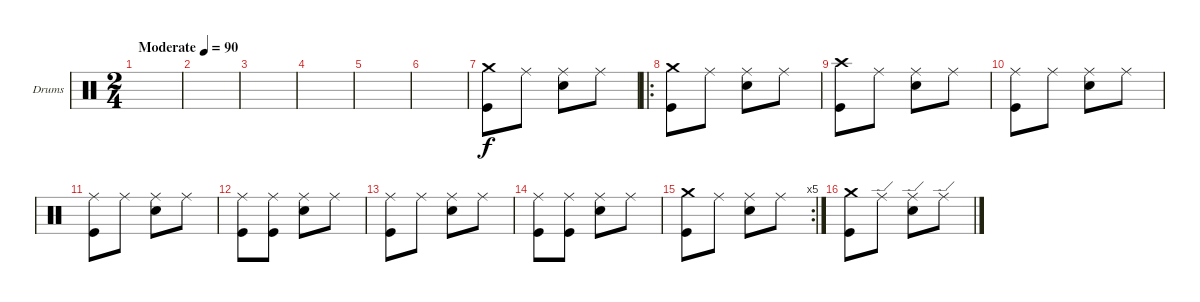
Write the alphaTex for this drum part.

\bracketExtendMode groupsimilarinstruments
\firstSystemTrackNameOrientation horizontal
\otherSystemsTrackNameOrientation horizontal
\track ("Drumkit" "Drums") {instrument percussion}
\staff {score}
\articulation defaults
\ts (2 4)
\beaming (8 2 2)
\tempo (90 "Moderate")
\clef neutral
\scale
0.472222
\ks c
|
\scale
0.263889 |
\scale
0.263889 |
\scale
0.333333 |
\scale
0.333333 |
\scale
0.333333 |
\scale
0.311475 ("Crash medium (hit)" "Kick (hit)").8 "Ride (middle)".8 ("Ride (middle)" "Snare (hit) 2").8 "Ride (middle)".8 |
\ro
\scale
0.377049 ("Crash medium (hit)" "Kick (hit)").8 "Ride (middle)".8 ("Ride (middle)" "Snare (hit) 2").8 "Ride (middle)".8 |
\scale
0.311475 ("Crash high (hit)" "Kick (hit)").8 "Ride (middle)".8 ("Ride (middle)" "Snare (hit) 2").8 "Ride (middle)".8 |
\scale
0.333333 ("Ride (middle)" "Kick (hit)").8 "Ride (middle)".8 ("Ride (middle)" "Snare (hit) 2").8 "Ride (middle)".8 |
\scale
0.333333 ("Ride (middle)" "Kick (hit)").8 "Ride (middle)".8 ("Ride (middle)" "Snare (hit) 2").8 "Ride (middle)".8 |
\scale
0.333333 ("Ride (middle)" "Kick (hit)").8 ("Ride (middle)" "Kick (hit)").8 ("Ride (middle)" "Snare (hit) 2").8 "Ride (middle)".8 |
\scale
0.322034 ("Ride (middle)" "Kick (hit)").8 "Ride (middle)".8 ("Ride (middle)" "Snare (hit) 2").8 "Ride (middle)".8 |
\scale
0.322034 ("Ride (middle)" "Kick (hit)").8 ("Ride (middle)" "Kick (hit)").8 ("Ride (middle)" "Snare (hit) 2").8 "Ride (middle)".8 |
\rc 5
\scale
0.355932 ("Kick (hit)" "Crash medium (hit)").8 "Ride (middle)".8 ("Ride (middle)" "Snare (hit) 2").8 "Ride (middle)".8 |
\scale
0.333333 ("Kick (hit)" "Crash medium (hit)").8 "Ride (edge)".8 ("Snare (hit) 2" "Ride (edge)").8 "Ride (edge)".8
